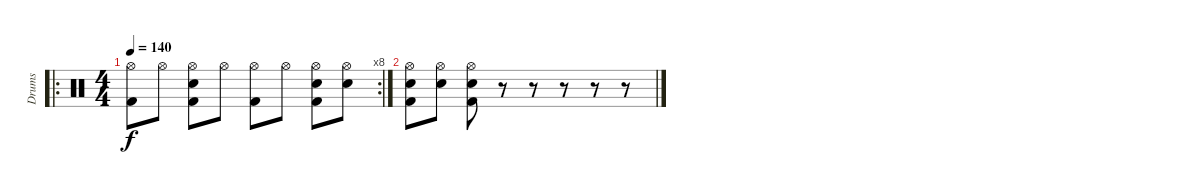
\track ("Drums" "Drums") {instrument percussion}
\staff {score}
\articulation defaults
\ro
\rc 8
\ts (4 4)
\tempo 140
\clef neutral
\ks c
("Hi-Hat (open)" "Kick (hit) 2").8{dy f} "Hi-Hat (open)".8 ("Electric Snare (hit)" "Hi-Hat (open)" "Kick (hit) 2").8 "Hi-Hat (open)".8 ("Hi-Hat (open)" "Kick (hit) 2").8 "Hi-Hat (open)".8 ("Electric Snare (hit)" "Hi-Hat (open)" "Kick (hit) 2").8 ("Electric Snare (hit)" "Hi-Hat (open)").8 |
("Electric Snare (hit)" "Hi-Hat (open)" "Kick (hit) 2").8 ("Electric Snare (hit)" "Hi-Hat (open)").8 ("Electric Snare (hit)" "Hi-Hat (open)" "Kick (hit) 2").8 r.8 r.8 r.8 r.8 r.8
